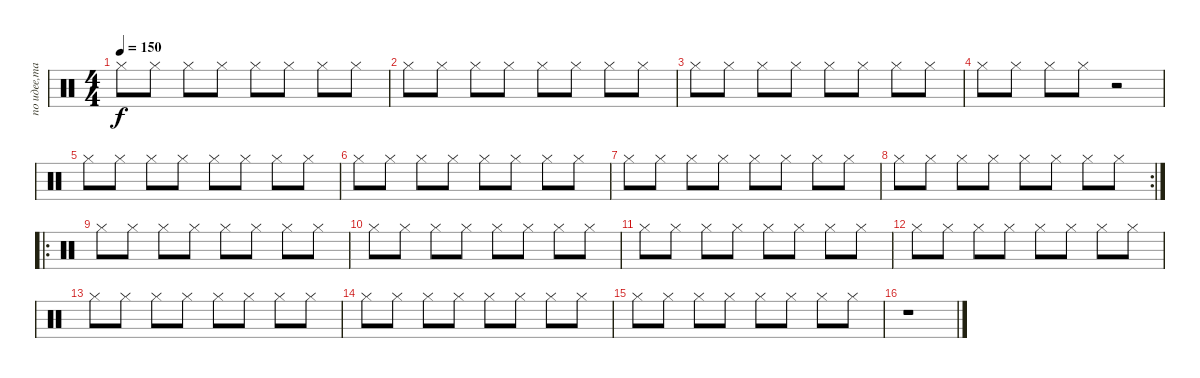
\track ("по идее,там Кулаков...но это Гурьянов:)" "по идее,та") {instrument percussion}
\staff {score}
\articulation defaults
\ts (4 4)
\tempo 150
\clef neutral
\ks c "Hi-Hat (closed)".8{dy f} "Hi-Hat (closed)".8 "Hi-Hat (closed)".8 "Hi-Hat (closed)".8 "Hi-Hat (closed)".8 "Hi-Hat (closed)".8 "Hi-Hat (closed)".8 "Hi-Hat (closed)".8
|
"Hi-Hat (closed)".8 "Hi-Hat (closed)".8 "Hi-Hat (closed)".8 "Hi-Hat (closed)".8 "Hi-Hat (closed)".8 "Hi-Hat (closed)".8 "Hi-Hat (closed)".8 "Hi-Hat (closed)".8 |
"Hi-Hat (closed)".8 "Hi-Hat (closed)".8 "Hi-Hat (closed)".8 "Hi-Hat (closed)".8 "Hi-Hat (closed)".8 "Hi-Hat (closed)".8 "Hi-Hat (closed)".8 "Hi-Hat (closed)".8 |
"Hi-Hat (closed)".8 "Hi-Hat (closed)".8 "Hi-Hat (closed)".8 "Hi-Hat (closed)".8 r.2 |
"Hi-Hat (closed)".8 "Hi-Hat (closed)".8 "Hi-Hat (closed)".8 "Hi-Hat (closed)".8 "Hi-Hat (closed)".8 "Hi-Hat (closed)".8 "Hi-Hat (closed)".8 "Hi-Hat (closed)".8 |
"Hi-Hat (closed)".8 "Hi-Hat (closed)".8 "Hi-Hat (closed)".8 "Hi-Hat (closed)".8 "Hi-Hat (closed)".8 "Hi-Hat (closed)".8 "Hi-Hat (closed)".8 "Hi-Hat (closed)".8 |
"Hi-Hat (closed)".8 "Hi-Hat (closed)".8 "Hi-Hat (closed)".8 "Hi-Hat (closed)".8 "Hi-Hat (closed)".8 "Hi-Hat (closed)".8 "Hi-Hat (closed)".8 "Hi-Hat (closed)".8 |
\rc 2 "Hi-Hat (closed)".8 "Hi-Hat (closed)".8 "Hi-Hat (closed)".8 "Hi-Hat (closed)".8 "Hi-Hat (closed)".8 "Hi-Hat (closed)".8 "Hi-Hat (closed)".8 "Hi-Hat (closed)".8
|
\ro "Hi-Hat (closed)".8 "Hi-Hat (closed)".8 "Hi-Hat (closed)".8 "Hi-Hat (closed)".8 "Hi-Hat (closed)".8 "Hi-Hat (closed)".8 "Hi-Hat (closed)".8 "Hi-Hat (closed)".8
|
"Hi-Hat (closed)".8 "Hi-Hat (closed)".8 "Hi-Hat (closed)".8 "Hi-Hat (closed)".8 "Hi-Hat (closed)".8 "Hi-Hat (closed)".8 "Hi-Hat (closed)".8 "Hi-Hat (closed)".8 |
"Hi-Hat (closed)".8 "Hi-Hat (closed)".8 "Hi-Hat (closed)".8 "Hi-Hat (closed)".8 "Hi-Hat (closed)".8 "Hi-Hat (closed)".8 "Hi-Hat (closed)".8 "Hi-Hat (closed)".8 |
"Hi-Hat (closed)".8 "Hi-Hat (closed)".8 "Hi-Hat (closed)".8 "Hi-Hat (closed)".8 "Hi-Hat (closed)".8 "Hi-Hat (closed)".8 "Hi-Hat (closed)".8 "Hi-Hat (closed)".8 |
"Hi-Hat (closed)".8 "Hi-Hat (closed)".8 "Hi-Hat (closed)".8 "Hi-Hat (closed)".8 "Hi-Hat (closed)".8 "Hi-Hat (closed)".8 "Hi-Hat (closed)".8 "Hi-Hat (closed)".8 |
"Hi-Hat (closed)".8 "Hi-Hat (closed)".8 "Hi-Hat (closed)".8 "Hi-Hat (closed)".8 "Hi-Hat (closed)".8 "Hi-Hat (closed)".8 "Hi-Hat (closed)".8 "Hi-Hat (closed)".8 |
"Hi-Hat (closed)".8 "Hi-Hat (closed)".8 "Hi-Hat (closed)".8 "Hi-Hat (closed)".8 "Hi-Hat (closed)".8 "Hi-Hat (closed)".8 "Hi-Hat (closed)".8 "Hi-Hat (closed)".8 |
r.1
